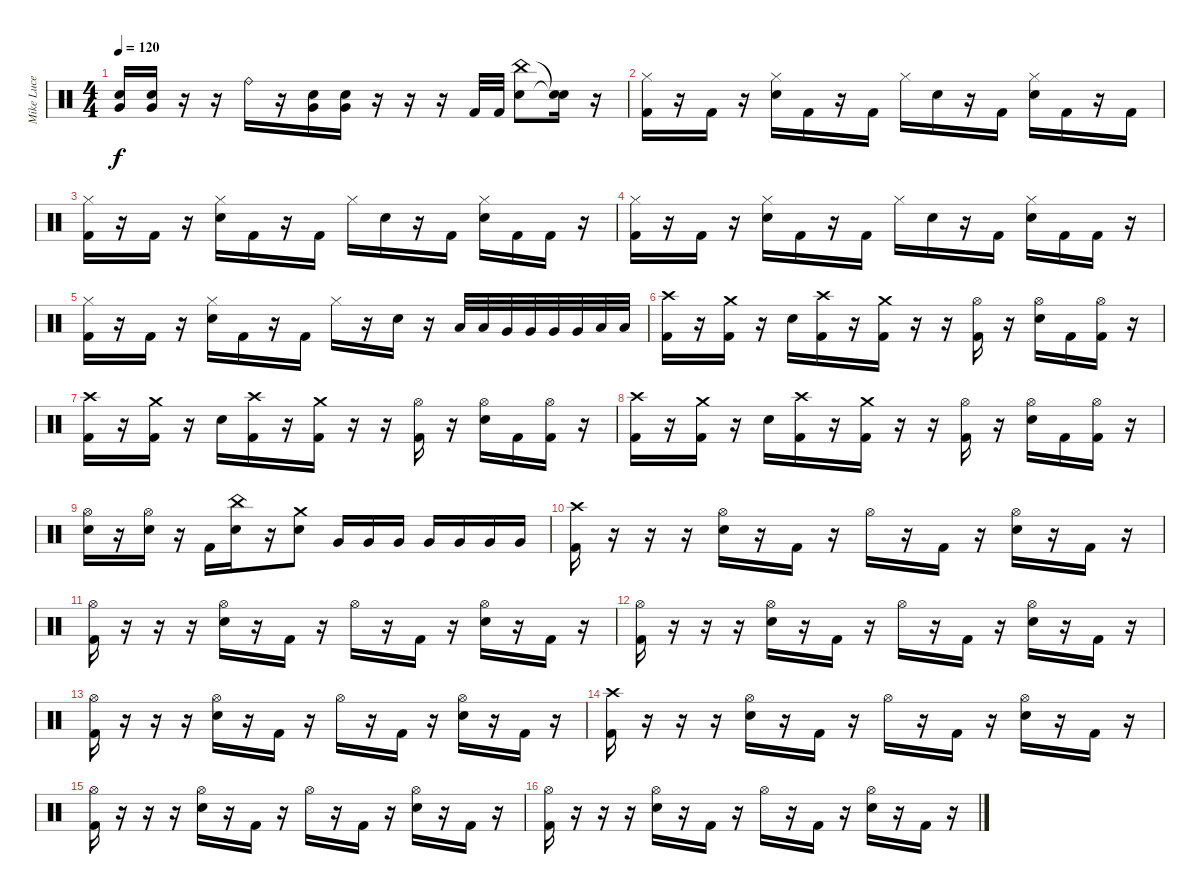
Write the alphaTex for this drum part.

\track ("Mike Luce" "Mike Luce") {instrument percussion}
\staff {score}
\articulation defaults
\ts (4 4)
\tempo 120
\clef neutral
\ks c
("Very Low Tom (hit)" "Electric Snare (hit)").16{dy f} ("Very Low Tom (hit)" "Electric Snare (hit)").16 r.16 r.16 "Ride (bell)".16 r.16 ("Very Low Tom (hit)" "Electric Snare (hit)").16 ("Very Low Tom (hit)" "Electric Snare (hit)").16 r.16 r.16 r.16 "Kick (hit) 2".32 "Kick (hit) 2".32 ("China (hit)" "Electric Snare (hit)").8 ("Snare (hit)"{t} "Snare (hit)"{t}).16 r.16 |
("Hi-Hat (closed)" "Kick (hit) 2").16 r.16 "Kick (hit) 2".16 r.16 ("Hi-Hat (closed)" "Electric Snare (hit)").16 "Kick (hit) 2".16 r.16 "Kick (hit) 2".16 "Hi-Hat (closed)".16 "Electric Snare (hit)".16 r.16 "Kick (hit) 2".16 ("Hi-Hat (closed)" "Electric Snare (hit)").16 "Kick (hit) 2".16 r.16 "Kick (hit) 2".16 |
("Hi-Hat (closed)" "Kick (hit) 2").16 r.16 "Kick (hit) 2".16 r.16 ("Hi-Hat (closed)" "Electric Snare (hit)").16 "Kick (hit) 2".16 r.16 "Kick (hit) 2".16 "Hi-Hat (closed)".16 "Electric Snare (hit)".16 r.16 "Kick (hit) 2".16 ("Hi-Hat (closed)" "Electric Snare (hit)").16 "Kick (hit) 2".16 "Kick (hit) 2".16 r.16 |
("Hi-Hat (closed)" "Kick (hit) 2").16 r.16 "Kick (hit) 2".16 r.16 ("Hi-Hat (closed)" "Electric Snare (hit)").16 "Kick (hit) 2".16 r.16 "Kick (hit) 2".16 "Hi-Hat (closed)".16 "Electric Snare (hit)".16 r.16 "Kick (hit) 2".16 ("Hi-Hat (closed)" "Electric Snare (hit)").16 "Kick (hit) 2".16 "Kick (hit) 2".16 r.16 |
("Hi-Hat (closed)" "Kick (hit) 2").16 r.16 "Kick (hit) 2".16 r.16 ("Hi-Hat (closed)" "Electric Snare (hit)").16 "Kick (hit) 2".16 r.16 "Kick (hit) 2".16 "Hi-Hat (closed)".16 r.16 "Electric Snare (hit)".16 r.16 "Low Tom (hit)".32 "Low Tom (hit)".32 "Very Low Tom (hit)".32 "Very Low Tom (hit)".32 "Very Low Tom (hit)".32 "Very Low Tom (hit)".32 "Low Floor Tom (hit)".32 "Low Floor Tom (hit)".32 |
("Crash high (hit)" "Kick (hit) 2").16 r.16 ("Crash medium (hit)" "Kick (hit) 2").16 r.16 "Electric Snare (hit)".16 ("Crash high (hit)" "Kick (hit) 2").16 r.16 ("Crash medium (hit)" "Kick (hit) 2").16 r.16 r.16 ("Hi-Hat (open)" "Kick (hit) 2").16 r.16 ("Hi-Hat (open)" "Electric Snare (hit)").16 "Kick (hit) 2".16 ("Hi-Hat (open)" "Kick (hit) 2").16 r.16 |
("Crash high (hit)" "Kick (hit) 2").16 r.16 ("Crash medium (hit)" "Kick (hit) 2").16 r.16 "Electric Snare (hit)".16 ("Crash high (hit)" "Kick (hit) 2").16 r.16 ("Crash medium (hit)" "Kick (hit) 2").16 r.16 r.16 ("Hi-Hat (open)" "Kick (hit) 2").16 r.16 ("Hi-Hat (open)" "Electric Snare (hit)").16 "Kick (hit) 2".16 ("Hi-Hat (open)" "Kick (hit) 2").16 r.16 |
("Crash high (hit)" "Kick (hit) 2").16 r.16 ("Crash medium (hit)" "Kick (hit) 2").16 r.16 "Electric Snare (hit)".16 ("Crash high (hit)" "Kick (hit) 2").16 r.16 ("Crash medium (hit)" "Kick (hit) 2").16 r.16 r.16 ("Hi-Hat (open)" "Kick (hit) 2").16 r.16 ("Hi-Hat (open)" "Electric Snare (hit)").16 "Kick (hit) 2".16 ("Hi-Hat (open)" "Kick (hit) 2").16 r.16 |
("Hi-Hat (open)" "Electric Snare (hit)").16 r.16 ("Hi-Hat (open)" "Electric Snare (hit)").16 r.16 "Kick (hit) 2".16 ("China (hit)" "Electric Snare (hit)").16 r.16 ("Crash medium (hit)" "Electric Snare (hit)").8 "Very Low Tom (hit)".16 "Very Low Tom (hit)".16 "Very Low Tom (hit)".16 "Very Low Tom (hit)".16 "Very Low Tom (hit)".16 "Very Low Tom (hit)".16 "Very Low Tom (hit)".16 |
("Crash high (hit)" "Kick (hit) 2").16 r.16 r.16 r.16 ("Hi-Hat (open)" "Electric Snare (hit)").16 r.16 "Kick (hit) 2".16 r.16 "Hi-Hat (open)".16 r.16 "Kick (hit) 2".16 r.16 ("Hi-Hat (open)" "Electric Snare (hit)").16 r.16 "Kick (hit) 2".16 r.16 |
("Hi-Hat (open)" "Kick (hit) 2").16 r.16 r.16 r.16 ("Hi-Hat (open)" "Electric Snare (hit)").16 r.16 "Kick (hit) 2".16 r.16 "Hi-Hat (open)".16 r.16 "Kick (hit) 2".16 r.16 ("Hi-Hat (open)" "Electric Snare (hit)").16 r.16 "Kick (hit) 2".16 r.16 |
("Hi-Hat (open)" "Kick (hit) 2").16 r.16 r.16 r.16 ("Hi-Hat (open)" "Electric Snare (hit)").16 r.16 "Kick (hit) 2".16 r.16 "Hi-Hat (open)".16 r.16 "Kick (hit) 2".16 r.16 ("Hi-Hat (open)" "Electric Snare (hit)").16 r.16 "Kick (hit) 2".16 r.16 |
("Hi-Hat (open)" "Kick (hit) 2").16 r.16 r.16 r.16 ("Hi-Hat (open)" "Electric Snare (hit)").16 r.16 "Kick (hit) 2".16 r.16 "Hi-Hat (open)".16 r.16 "Kick (hit) 2".16 r.16 ("Hi-Hat (open)" "Electric Snare (hit)").16 r.16 "Kick (hit) 2".16 r.16 |
("Crash high (hit)" "Kick (hit) 2").16 r.16 r.16 r.16 ("Hi-Hat (open)" "Electric Snare (hit)").16 r.16 "Kick (hit) 2".16 r.16 "Hi-Hat (open)".16 r.16 "Kick (hit) 2".16 r.16 ("Hi-Hat (open)" "Electric Snare (hit)").16 r.16 "Kick (hit) 2".16 r.16 |
("Hi-Hat (open)" "Kick (hit) 2").16 r.16 r.16 r.16 ("Hi-Hat (open)" "Electric Snare (hit)").16 r.16 "Kick (hit) 2".16 r.16 "Hi-Hat (open)".16 r.16 "Kick (hit) 2".16 r.16 ("Hi-Hat (open)" "Electric Snare (hit)").16 r.16 "Kick (hit) 2".16 r.16 |
("Hi-Hat (open)" "Kick (hit) 2").16 r.16 r.16 r.16 ("Hi-Hat (open)" "Electric Snare (hit)").16 r.16 "Kick (hit) 2".16 r.16 "Hi-Hat (open)".16 r.16 "Kick (hit) 2".16 r.16 ("Hi-Hat (open)" "Electric Snare (hit)").16 r.16 "Kick (hit) 2".16 r.16
